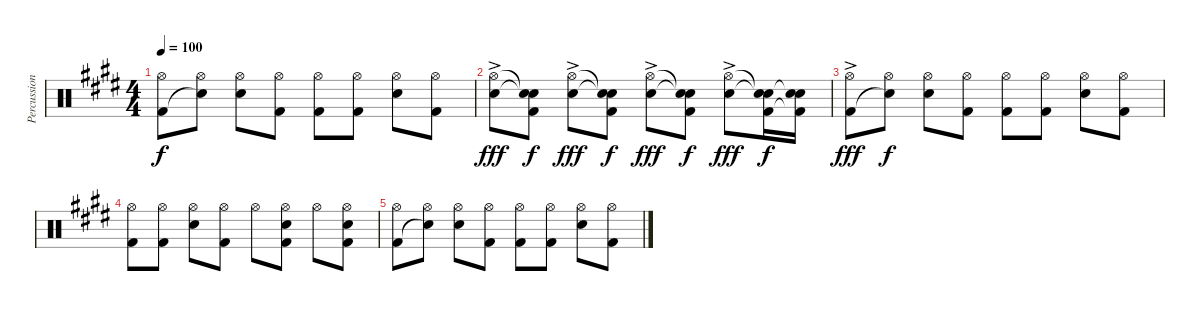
\track ("Percussion" "Percussion") {instrument percussion}
\staff {score}
\articulation defaults
\ts (4 4)
\tempo 100
\clef neutral
\ks e
("Hi-Hat (open)" "Kick (hit) 2").8{dy f} ("Hi-Hat (open)" "Snare (hit)"{t}).8 ("Hi-Hat (open)" "Snare (hit) 2").8 ("Hi-Hat (open)" "Kick (hit) 2").8 ("Hi-Hat (open)" "Kick (hit) 2").8 ("Hi-Hat (open)" "Kick (hit) 2").8 ("Hi-Hat (open)" "Snare (hit) 2").8 ("Hi-Hat (open)" "Kick (hit) 2").8 |
("Hi-Hat (open)"{ac} "Snare (hit) 2"{ac}).8{dy fff} ("Snare (hit)"{t} "Snare (hit)"{t} "Kick (hit) 2").8{dy f} ("Hi-Hat (open)"{ac} "Snare (hit) 2"{ac}).8{dy fff} ("Snare (hit)"{t} "Snare (hit)"{t} "Kick (hit) 2").8{dy f} ("Hi-Hat (open)"{ac} "Snare (hit) 2"{ac}).8{dy fff} ("Snare (hit)"{t} "Snare (hit)"{t} "Kick (hit) 2").8{dy f} ("Hi-Hat (open)"{ac} "Snare (hit) 2"{ac}).8{dy fff} ("Snare (hit)"{t} "Snare (hit)"{t} "Kick (hit) 2").16{dy f} ("Snare (hit)"{t} "Snare (hit) 2" "Kick (hit) 2"{t}).16 |
("Hi-Hat (open)"{ac} "Kick (hit) 2").8{dy fff} ("Hi-Hat (open)" "Snare (hit)"{t}).8{dy f} ("Hi-Hat (open)" "Snare (hit) 2").8 ("Hi-Hat (open)" "Kick (hit) 2").8 ("Hi-Hat (open)" "Kick (hit) 2").8 ("Hi-Hat (open)" "Kick (hit) 2").8 ("Hi-Hat (open)" "Snare (hit) 2").8 ("Hi-Hat (open)" "Kick (hit) 2").8 |
("Hi-Hat (open)" "Kick (hit) 2").8 ("Hi-Hat (open)" "Kick (hit) 2").8 ("Hi-Hat (open)" "Snare (hit) 2").8 ("Hi-Hat (open)" "Kick (hit) 2").8 "Hi-Hat (open)".8 ("Hi-Hat (open)" "Snare (hit) 2" "Kick (hit) 2").8 "Hi-Hat (open)".8 ("Hi-Hat (open)" "Snare (hit) 2" "Kick (hit) 2").8 |
("Hi-Hat (open)" "Kick (hit) 2").8 ("Hi-Hat (open)" "Snare (hit)"{t}).8 ("Hi-Hat (open)" "Snare (hit) 2").8 ("Hi-Hat (open)" "Kick (hit) 2").8 ("Hi-Hat (open)" "Kick (hit) 2").8 ("Hi-Hat (open)" "Kick (hit) 2").8 ("Hi-Hat (open)" "Snare (hit) 2").8 ("Hi-Hat (open)" "Kick (hit) 2").8
